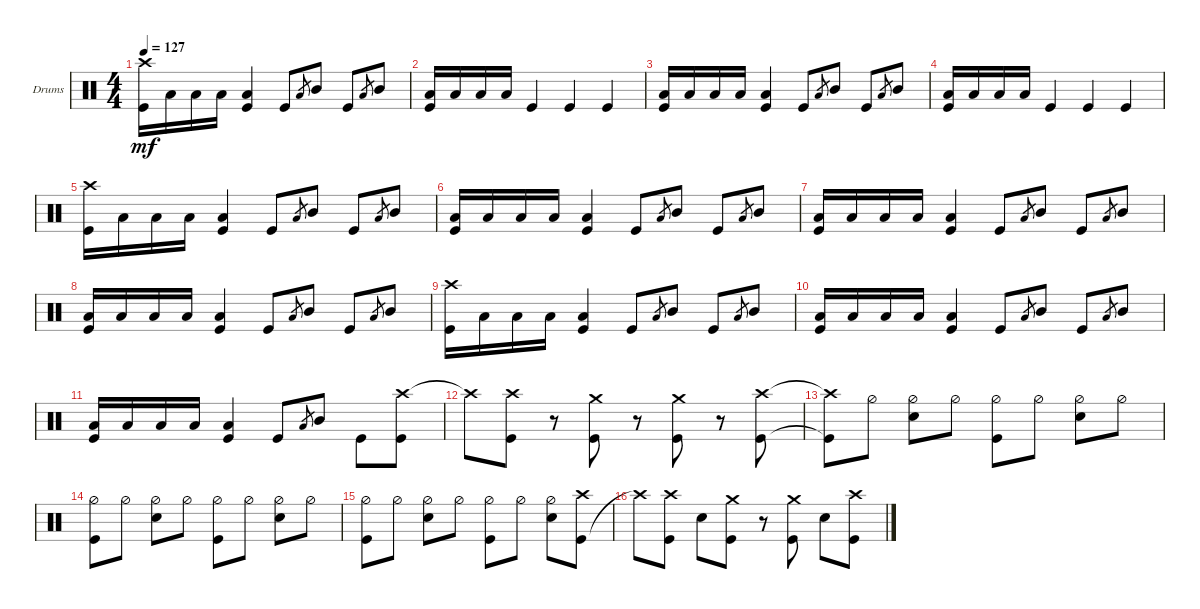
\defaultSystemsLayout 4
\bracketExtendMode groupsimilarinstruments
\firstSystemTrackNameOrientation horizontal
\otherSystemsTrackNameOrientation horizontal
\track ("Drumkit" "Drums") {instrument percussion}
\staff {score}
\articulation defaults
\ts (4 4)
\tempo 127
\clef neutral
\scale
0.333333
\ks c
("Kick (hit)" "Crash high (hit)").16{dy mf} "Low Tom (hit)".16 "Low Tom (hit)".16 "Low Tom (hit)".16 ("Low Tom (hit)" "Kick (hit)").4 "Kick (hit)".8 "Low Tom (hit)".8{gr} "Mid Tom (hit)".8 "Kick (hit)".8 "Low Tom (hit)".8{gr} "Mid Tom (hit)".8 |
\scale
0.333333 ("Kick (hit)" "Low Tom (hit)").16 "Low Tom (hit)".16 "Low Tom (hit)".16 "Low Tom (hit)".16 "Kick (hit)".4 "Kick (hit)".4 "Kick (hit)".4 |
\scale
0.333333 ("Kick (hit)" "Low Tom (hit)").16 "Low Tom (hit)".16 "Low Tom (hit)".16 "Low Tom (hit)".16 ("Low Tom (hit)" "Kick (hit)").4 "Kick (hit)".8 "Low Tom (hit)".8{gr} "Mid Tom (hit)".8 "Kick (hit)".8 "Low Tom (hit)".8{gr} "Mid Tom (hit)".8 |
\scale
0.333333 ("Kick (hit)" "Low Tom (hit)").16 "Low Tom (hit)".16 "Low Tom (hit)".16 "Low Tom (hit)".16 "Kick (hit)".4 "Kick (hit)".4 "Kick (hit)".4 |
\scale
0.333333 ("Kick (hit)" "Crash high (hit)").16 "Low Tom (hit)".16 "Low Tom (hit)".16 "Low Tom (hit)".16 ("Low Tom (hit)" "Kick (hit)").4 "Kick (hit)".8 "Low Tom (hit)".8{gr} "Mid Tom (hit)".8 "Kick (hit)".8 "Low Tom (hit)".8{gr} "Mid Tom (hit)".8 |
\scale
0.333333 ("Kick (hit)" "Low Tom (hit)").16 "Low Tom (hit)".16 "Low Tom (hit)".16 "Low Tom (hit)".16 ("Low Tom (hit)" "Kick (hit)").4 "Kick (hit)".8 "Low Tom (hit)".8{gr} "Mid Tom (hit)".8 "Kick (hit)".8 "Low Tom (hit)".8{gr} "Mid Tom (hit)".8 |
\scale
0.333333 ("Kick (hit)" "Low Tom (hit)").16 "Low Tom (hit)".16 "Low Tom (hit)".16 "Low Tom (hit)".16 ("Low Tom (hit)" "Kick (hit)").4 "Kick (hit)".8 "Low Tom (hit)".8{gr} "Mid Tom (hit)".8 "Kick (hit)".8 "Low Tom (hit)".8{gr} "Mid Tom (hit)".8 |
\scale
0.333333 ("Kick (hit)" "Low Tom (hit)").16 "Low Tom (hit)".16 "Low Tom (hit)".16 "Low Tom (hit)".16 ("Low Tom (hit)" "Kick (hit)").4 "Kick (hit)".8 "Low Tom (hit)".8{gr} "Mid Tom (hit)".8 "Kick (hit)".8 "Low Tom (hit)".8{gr} "Mid Tom (hit)".8 |
\scale
0.333333 ("Kick (hit)" "Crash high (hit)").16 "Low Tom (hit)".16 "Low Tom (hit)".16 "Low Tom (hit)".16 ("Low Tom (hit)" "Kick (hit)").4 "Kick (hit)".8 "Low Tom (hit)".8{gr} "Mid Tom (hit)".8 "Kick (hit)".8 "Low Tom (hit)".8{gr} "Mid Tom (hit)".8 |
\scale
0.333333 ("Kick (hit)" "Low Tom (hit)").16 "Low Tom (hit)".16 "Low Tom (hit)".16 "Low Tom (hit)".16 ("Low Tom (hit)" "Kick (hit)").4 "Kick (hit)".8 "Low Tom (hit)".8{gr} "Mid Tom (hit)".8 "Kick (hit)".8 "Low Tom (hit)".8{gr} "Mid Tom (hit)".8 |
\scale
0.333333 ("Kick (hit)" "Low Tom (hit)").16 "Low Tom (hit)".16 "Low Tom (hit)".16 "Low Tom (hit)".16 ("Low Tom (hit)" "Kick (hit)").4 "Kick (hit)".8 "Low Tom (hit)".8{gr} "Mid Tom (hit)".8 "Kick (hit)".8 ("Crash high (hit)" "Kick (hit)").8 |
\scale
0.333333 "Crash high (hit)"{t}.8 ("Crash high (hit)" "Kick (hit)").8 r.8 ("Kick (hit)" "Crash medium (hit)").8 r.8 ("Kick (hit)" "Crash medium (hit)").8 r.8 ("Kick (hit)" "Crash high (hit)").8 |
\scale
0.333333 ("Kick (hit)"{t} "Crash high (hit)"{t}).8 "Hi-Hat (half)".8 ("Snare (hit) 2" "Hi-Hat (half)").8 "Hi-Hat (half)".8 ("Hi-Hat (half)" "Kick (hit)").8 "Hi-Hat (half)".8 ("Hi-Hat (half)" "Snare (hit) 2").8 "Hi-Hat (half)".8 |
\scale
0.333333 ("Hi-Hat (half)" "Kick (hit)").8 "Hi-Hat (half)".8 ("Hi-Hat (half)" "Snare (hit) 2").8 "Hi-Hat (half)".8 ("Hi-Hat (half)" "Kick (hit)").8 "Hi-Hat (half)".8 ("Hi-Hat (half)" "Snare (hit) 2").8 "Hi-Hat (half)".8 |
\scale
0.333333 ("Hi-Hat (half)" "Kick (hit)").8 "Hi-Hat (half)".8 ("Hi-Hat (half)" "Snare (hit) 2").8 "Hi-Hat (half)".8 ("Hi-Hat (half)" "Kick (hit)").8 "Hi-Hat (half)".8 ("Hi-Hat (half)" "Snare (hit) 2").8 ("Kick (hit)" "Crash high (hit)").8 |
\scale
0.333333 "Crash high (hit)"{t}.8 ("Crash high (hit)" "Kick (hit)").8 "Snare (hit) 2".8 ("Kick (hit)" "Crash medium (hit)").8 r.8 ("Kick (hit)" "Crash medium (hit)").8 "Snare (hit) 2".8 ("Kick (hit)" "Crash high (hit)").8
